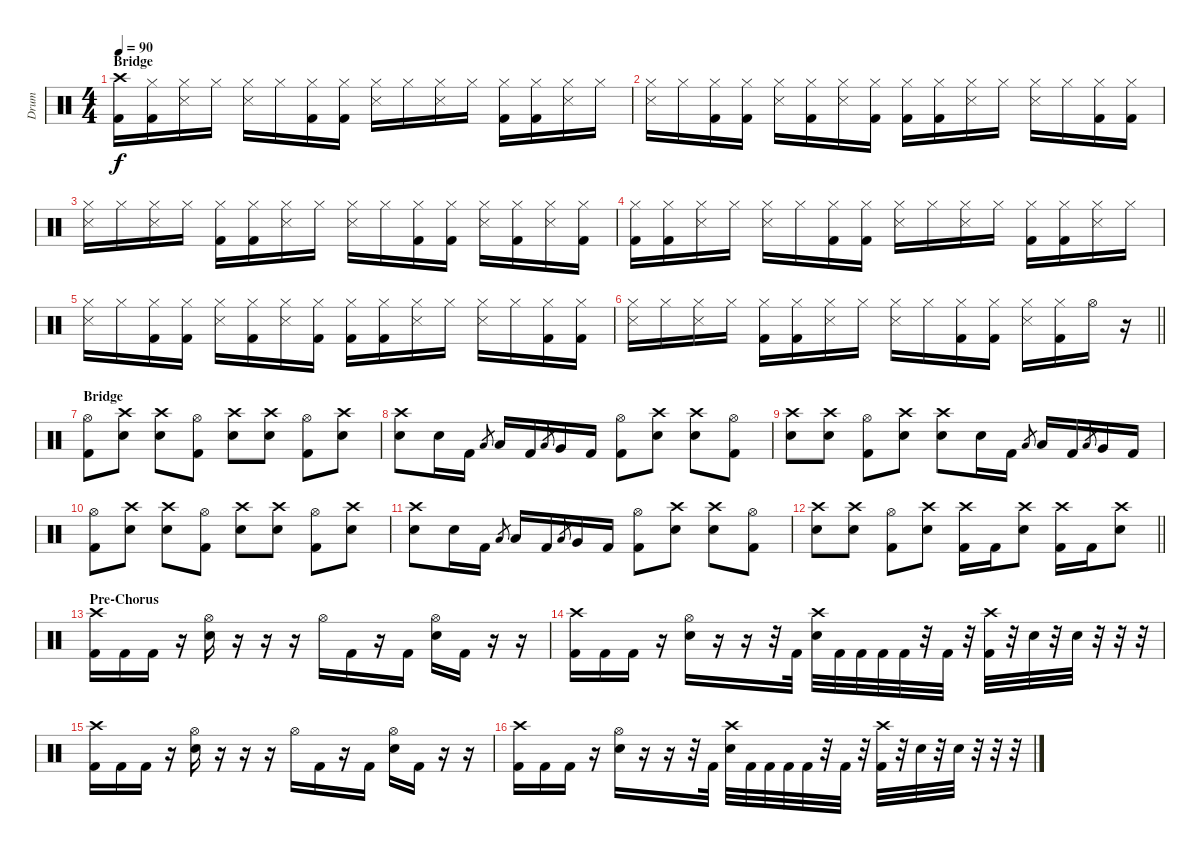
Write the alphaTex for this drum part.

\track ("Drum" "Drum") {instrument percussion}
\staff {score}
\articulation defaults
\ts (4 4)
\section ("" "Bridge")
\tempo 90
\clef neutral
\ks c
("Crash high (hit)" "Kick (hit) 2").16{dy f} ("Hi-Hat (closed)" "Kick (hit) 2").16 ("Hi-Hat (closed)" "Metronome (hit)").16 "Hi-Hat (closed)".16 ("Hi-Hat (closed)" "Metronome (hit)").16 "Hi-Hat (closed)".16 ("Hi-Hat (closed)" "Kick (hit) 2").16 ("Hi-Hat (closed)" "Kick (hit) 2").16 ("Hi-Hat (closed)" "Metronome (hit)").16 "Hi-Hat (closed)".16 ("Hi-Hat (closed)" "Metronome (hit)").16 "Hi-Hat (closed)".16 ("Hi-Hat (closed)" "Kick (hit) 2").16 ("Hi-Hat (closed)" "Kick (hit) 2").16 ("Hi-Hat (closed)" "Metronome (hit)").16 "Hi-Hat (closed)".16 |
("Hi-Hat (closed)" "Metronome (hit)").16 "Hi-Hat (closed)".16 ("Hi-Hat (closed)" "Kick (hit) 2").16 ("Hi-Hat (closed)" "Kick (hit) 2").16 ("Hi-Hat (closed)" "Metronome (hit)").16 ("Hi-Hat (closed)" "Kick (hit) 2").16 ("Hi-Hat (closed)" "Metronome (hit)").16 ("Hi-Hat (closed)" "Kick (hit) 2").16 ("Hi-Hat (closed)" "Kick (hit) 2").16 ("Hi-Hat (closed)" "Kick (hit) 2").16 ("Hi-Hat (closed)" "Metronome (hit)").16 "Hi-Hat (closed)".16 ("Hi-Hat (closed)" "Metronome (hit)").16 "Hi-Hat (closed)".16 ("Hi-Hat (closed)" "Kick (hit) 2").16 ("Hi-Hat (closed)" "Kick (hit) 2").16 |
("Hi-Hat (closed)" "Metronome (hit)").16 "Hi-Hat (closed)".16 ("Hi-Hat (closed)" "Metronome (hit)").16 "Hi-Hat (closed)".16 ("Hi-Hat (closed)" "Kick (hit) 2").16 ("Hi-Hat (closed)" "Kick (hit) 2").16 ("Hi-Hat (closed)" "Metronome (hit)").16 "Hi-Hat (closed)".16 ("Hi-Hat (closed)" "Metronome (hit)").16 "Hi-Hat (closed)".16 ("Hi-Hat (closed)" "Kick (hit) 2").16 ("Hi-Hat (closed)" "Kick (hit) 2").16 ("Hi-Hat (closed)" "Metronome (hit)").16 ("Hi-Hat (closed)" "Kick (hit) 2").16 ("Hi-Hat (closed)" "Metronome (hit)").16 ("Hi-Hat (closed)" "Kick (hit) 2").16 |
("Hi-Hat (closed)" "Kick (hit) 2").16 ("Hi-Hat (closed)" "Kick (hit) 2").16 ("Hi-Hat (closed)" "Metronome (hit)").16 "Hi-Hat (closed)".16 ("Hi-Hat (closed)" "Metronome (hit)").16 "Hi-Hat (closed)".16 ("Hi-Hat (closed)" "Kick (hit) 2").16 ("Hi-Hat (closed)" "Kick (hit) 2").16 ("Hi-Hat (closed)" "Metronome (hit)").16 "Hi-Hat (closed)".16 ("Hi-Hat (closed)" "Metronome (hit)").16 "Hi-Hat (closed)".16 ("Hi-Hat (closed)" "Kick (hit) 2").16 ("Hi-Hat (closed)" "Kick (hit) 2").16 ("Hi-Hat (closed)" "Metronome (hit)").16 "Hi-Hat (closed)".16 |
("Hi-Hat (closed)" "Metronome (hit)").16 "Hi-Hat (closed)".16 ("Hi-Hat (closed)" "Kick (hit) 2").16 ("Hi-Hat (closed)" "Kick (hit) 2").16 ("Hi-Hat (closed)" "Metronome (hit)").16 ("Hi-Hat (closed)" "Kick (hit) 2").16 ("Hi-Hat (closed)" "Metronome (hit)").16 ("Hi-Hat (closed)" "Kick (hit) 2").16 ("Hi-Hat (closed)" "Kick (hit) 2").16 ("Hi-Hat (closed)" "Kick (hit) 2").16 ("Hi-Hat (closed)" "Metronome (hit)").16 "Hi-Hat (closed)".16 ("Hi-Hat (closed)" "Metronome (hit)").16 "Hi-Hat (closed)".16 ("Hi-Hat (closed)" "Kick (hit) 2").16 ("Hi-Hat (closed)" "Kick (hit) 2").16 |
\barLineRight lightlight
("Hi-Hat (closed)" "Metronome (hit)").16 "Hi-Hat (closed)".16 ("Hi-Hat (closed)" "Metronome (hit)").16 "Hi-Hat (closed)".16 ("Hi-Hat (closed)" "Kick (hit) 2").16 ("Hi-Hat (closed)" "Kick (hit) 2").16 ("Hi-Hat (closed)" "Metronome (hit)").16 "Hi-Hat (closed)".16 ("Hi-Hat (closed)" "Metronome (hit)").16 "Hi-Hat (closed)".16 ("Hi-Hat (closed)" "Kick (hit) 2").16 ("Hi-Hat (closed)" "Kick (hit) 2").16 ("Hi-Hat (closed)" "Metronome (hit)").16 ("Hi-Hat (closed)" "Kick (hit) 2").16 "Hi-Hat (open)".16 r.16 |
\section ("" "Bridge")
("Hi-Hat (open)" "Kick (hit) 2").8 ("Crash high (hit)" "Electric Snare (hit)").8 ("Crash high (hit)" "Electric Snare (hit)").8 ("Hi-Hat (open)" "Kick (hit) 2").8 ("Crash high (hit)" "Electric Snare (hit)").8 ("Crash high (hit)" "Electric Snare (hit)").8 ("Hi-Hat (open)" "Kick (hit) 2").8 ("Crash high (hit)" "Electric Snare (hit)").8 |
("Crash high (hit)" "Electric Snare (hit)").8 "Electric Snare (hit)".16 "Kick (hit) 2".16 "Low Floor Tom (hit)".8{gr} "Low Tom (hit)".16 "Kick (hit) 2".16 "Low Floor Tom (hit)".8{gr} "Very Low Tom (hit)".16 "Kick (hit) 2".16 ("Hi-Hat (open)" "Kick (hit) 2").8 ("Crash high (hit)" "Electric Snare (hit)").8 ("Crash high (hit)" "Electric Snare (hit)").8 ("Hi-Hat (open)" "Kick (hit) 2").8 |
("Crash high (hit)" "Electric Snare (hit)").8 ("Crash high (hit)" "Electric Snare (hit)").8 ("Hi-Hat (open)" "Kick (hit) 2").8 ("Crash high (hit)" "Electric Snare (hit)").8 ("Crash high (hit)" "Electric Snare (hit)").8 "Electric Snare (hit)".16 "Kick (hit) 2".16 "Low Floor Tom (hit)".8{gr} "Low Tom (hit)".16 "Kick (hit) 2".16 "Low Floor Tom (hit)".8{gr} "Very Low Tom (hit)".16 "Kick (hit) 2".16 |
("Hi-Hat (open)" "Kick (hit) 2").8 ("Crash high (hit)" "Electric Snare (hit)").8 ("Crash high (hit)" "Electric Snare (hit)").8 ("Hi-Hat (open)" "Kick (hit) 2").8 ("Crash high (hit)" "Electric Snare (hit)").8 ("Crash high (hit)" "Electric Snare (hit)").8 ("Hi-Hat (open)" "Kick (hit) 2").8 ("Crash high (hit)" "Electric Snare (hit)").8 |
("Crash high (hit)" "Electric Snare (hit)").8 "Electric Snare (hit)".16 "Kick (hit) 2".16 "Low Floor Tom (hit)".8{gr} "Low Tom (hit)".16 "Kick (hit) 2".16 "Low Floor Tom (hit)".8{gr} "Very Low Tom (hit)".16 "Kick (hit) 2".16 ("Hi-Hat (open)" "Kick (hit) 2").8 ("Crash high (hit)" "Electric Snare (hit)").8 ("Crash high (hit)" "Electric Snare (hit)").8 ("Hi-Hat (open)" "Kick (hit) 2").8 |
\barLineRight lightlight
("Crash high (hit)" "Electric Snare (hit)").8 ("Crash high (hit)" "Electric Snare (hit)").8 ("Hi-Hat (open)" "Kick (hit) 2").8 ("Crash high (hit)" "Electric Snare (hit)").8 ("Crash high (hit)" "Kick (hit) 2").16 "Kick (hit) 2".16 ("Crash high (hit)" "Electric Snare (hit)").8 ("Crash high (hit)" "Kick (hit) 2").16 "Kick (hit) 2".16 ("Crash high (hit)" "Electric Snare (hit)").8 |
\section ("" "Pre-Chorus")
("Crash high (hit)" "Kick (hit) 2").16 "Kick (hit) 2".16 "Kick (hit) 2".16 r.16 ("Hi-Hat (open)" "Electric Snare (hit)").16 r.16 r.16 r.16 "Hi-Hat (open)".16 "Kick (hit) 2".16 r.16 "Kick (hit) 2".16 ("Hi-Hat (open)" "Electric Snare (hit)").16 "Kick (hit) 2".16 r.16 r.16 |
("Crash high (hit)" "Kick (hit) 2").16 "Kick (hit) 2".16 "Kick (hit) 2".16 r.16 ("Hi-Hat (open)" "Electric Snare (hit)").16 r.16 r.16 r.32 "Kick (hit) 2".32 ("Crash high (hit)" "Electric Snare (hit)").32{volume 9} "Kick (hit) 2".32 "Kick (hit) 2".32 "Kick (hit) 2".32 "Kick (hit) 2".32 r.32 "Kick (hit) 2".32 r.32 ("Crash high (hit)" "Kick (hit) 2").32 r.32 "Electric Snare (hit)".32 r.32 "Electric Snare (hit)".32 r.32 r.32 r.32 |
("Crash high (hit)" "Kick (hit) 2").16{volume 13} "Kick (hit) 2".16 "Kick (hit) 2".16 r.16 ("Hi-Hat (open)" "Electric Snare (hit)").16 r.16 r.16 r.16 "Hi-Hat (open)".16 "Kick (hit) 2".16 r.16 "Kick (hit) 2".16 ("Hi-Hat (open)" "Electric Snare (hit)").16 "Kick (hit) 2".16 r.16 r.16 |
("Crash high (hit)" "Kick (hit) 2").16 "Kick (hit) 2".16 "Kick (hit) 2".16 r.16 ("Hi-Hat (open)" "Electric Snare (hit)").16 r.16 r.16 r.32 "Kick (hit) 2".32 ("Crash high (hit)" "Electric Snare (hit)").32{volume 9} "Kick (hit) 2".32 "Kick (hit) 2".32 "Kick (hit) 2".32 "Kick (hit) 2".32 r.32 "Kick (hit) 2".32 r.32 ("Crash high (hit)" "Kick (hit) 2").32 r.32 "Electric Snare (hit)".32 r.32 "Electric Snare (hit)".32 r.32 r.32 r.32
